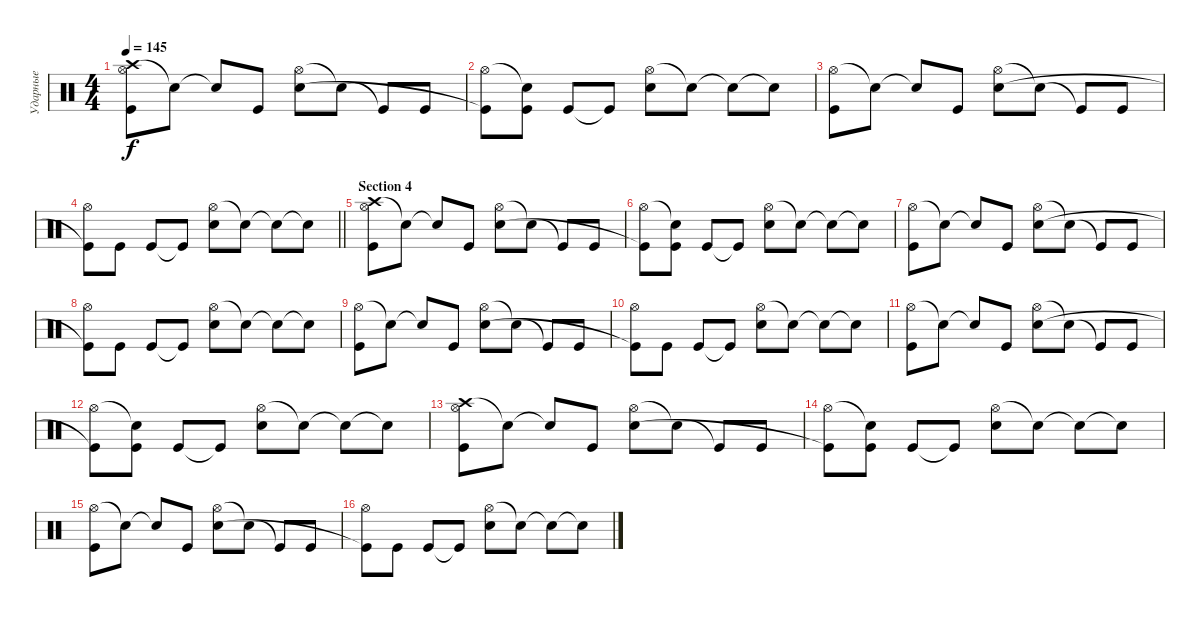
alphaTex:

\track ("Ударные" "Ударные") {instrument percussion}
\staff {score}
\articulation defaults
\ts (4 4)
\tempo 145
\clef neutral
\ks c
("Crash high (hit)" "Hi-Hat (open)" "Kick (hit)").8{dy f} "Snare (hit)"{t}.8 "Snare (hit)"{t}.8 "Kick (hit)".8 ("Hi-Hat (open)" "Snare (hit) 2").8 "Snare (hit)"{t}.8 "Kick (hit)"{t}.8 "Kick (hit)".8 |
("Hi-Hat (open)" "Kick (hit)"{t}).8 ("Snare (hit)"{t} "Kick (hit)").8 "Kick (hit)".8 "Kick (hit)"{t}.8 ("Hi-Hat (open)" "Snare (hit) 2").8 "Snare (hit)"{t}.8 "Snare (hit)"{t}.8 "Snare (hit)"{t}.8 |
("Hi-Hat (open)" "Kick (hit)").8 "Snare (hit)"{t}.8 "Snare (hit)"{t}.8 "Kick (hit)".8 ("Hi-Hat (open)" "Snare (hit) 2").8 "Snare (hit)"{t}.8 "Kick (hit)"{t}.8 "Kick (hit)".8 |
\barLineRight lightlight
("Hi-Hat (open)" "Kick (hit)"{t}).8 "Kick (hit)".8 "Kick (hit)".8 "Kick (hit)"{t}.8 ("Hi-Hat (open)" "Snare (hit) 2").8 "Snare (hit)"{t}.8 "Snare (hit)"{t}.8 "Snare (hit)"{t}.8 |
\section ("" "Section 4")
("Crash high (hit)" "Hi-Hat (open)" "Kick (hit)").8 "Snare (hit)"{t}.8 "Snare (hit)"{t}.8 "Kick (hit)".8 ("Hi-Hat (open)" "Snare (hit) 2").8 "Snare (hit)"{t}.8 "Kick (hit)"{t}.8 "Kick (hit)".8 |
("Hi-Hat (open)" "Kick (hit)"{t}).8 ("Snare (hit)"{t} "Kick (hit)").8 "Kick (hit)".8 "Kick (hit)"{t}.8 ("Hi-Hat (open)" "Snare (hit) 2").8 "Snare (hit)"{t}.8 "Snare (hit)"{t}.8 "Snare (hit)"{t}.8 |
("Hi-Hat (open)" "Kick (hit)").8 "Snare (hit)"{t}.8 "Snare (hit)"{t}.8 "Kick (hit)".8 ("Hi-Hat (open)" "Snare (hit) 2").8 "Snare (hit)"{t}.8 "Kick (hit)"{t}.8 "Kick (hit)".8 |
("Hi-Hat (open)" "Kick (hit)"{t}).8 "Kick (hit)".8 "Kick (hit)".8 "Kick (hit)"{t}.8 ("Hi-Hat (open)" "Snare (hit) 2").8 "Snare (hit)"{t}.8 "Snare (hit)"{t}.8 "Snare (hit)"{t}.8 |
("Hi-Hat (open)" "Kick (hit)").8 "Snare (hit)"{t}.8 "Snare (hit)"{t}.8 "Kick (hit)".8 ("Hi-Hat (open)" "Snare (hit) 2").8 "Snare (hit)"{t}.8 "Kick (hit)"{t}.8 "Kick (hit)".8 |
("Hi-Hat (open)" "Kick (hit)"{t}).8 "Kick (hit)".8 "Kick (hit)".8 "Kick (hit)"{t}.8 ("Hi-Hat (open)" "Snare (hit) 2").8 "Snare (hit)"{t}.8 "Snare (hit)"{t}.8 "Snare (hit)"{t}.8 |
("Hi-Hat (open)" "Kick (hit)").8 "Snare (hit)"{t}.8 "Snare (hit)"{t}.8 "Kick (hit)".8 ("Hi-Hat (open)" "Snare (hit) 2").8 "Snare (hit)"{t}.8 "Kick (hit)"{t}.8 "Kick (hit)".8 |
("Hi-Hat (open)" "Kick (hit)"{t}).8 ("Snare (hit)"{t} "Kick (hit)").8 "Kick (hit)".8 "Kick (hit)"{t}.8 ("Hi-Hat (open)" "Snare (hit) 2").8 "Snare (hit)"{t}.8 "Snare (hit)"{t}.8 "Snare (hit)"{t}.8 |
("Crash high (hit)" "Hi-Hat (open)" "Kick (hit)").8 "Snare (hit)"{t}.8 "Snare (hit)"{t}.8 "Kick (hit)".8 ("Hi-Hat (open)" "Snare (hit) 2").8 "Snare (hit)"{t}.8 "Kick (hit)"{t}.8 "Kick (hit)".8 |
("Hi-Hat (open)" "Kick (hit)"{t}).8 ("Snare (hit)"{t} "Kick (hit)").8 "Kick (hit)".8 "Kick (hit)"{t}.8 ("Hi-Hat (open)" "Snare (hit) 2").8 "Snare (hit)"{t}.8 "Snare (hit)"{t}.8 "Snare (hit)"{t}.8 |
("Hi-Hat (open)" "Kick (hit)").8 "Snare (hit)"{t}.8 "Snare (hit)"{t}.8 "Kick (hit)".8 ("Hi-Hat (open)" "Snare (hit) 2").8 "Snare (hit)"{t}.8 "Kick (hit)"{t}.8 "Kick (hit)".8 |
("Hi-Hat (open)" "Kick (hit)"{t}).8 "Kick (hit)".8 "Kick (hit)".8 "Kick (hit)"{t}.8 ("Hi-Hat (open)" "Snare (hit) 2").8 "Snare (hit)"{t}.8 "Snare (hit)"{t}.8 "Snare (hit)"{t}.8
